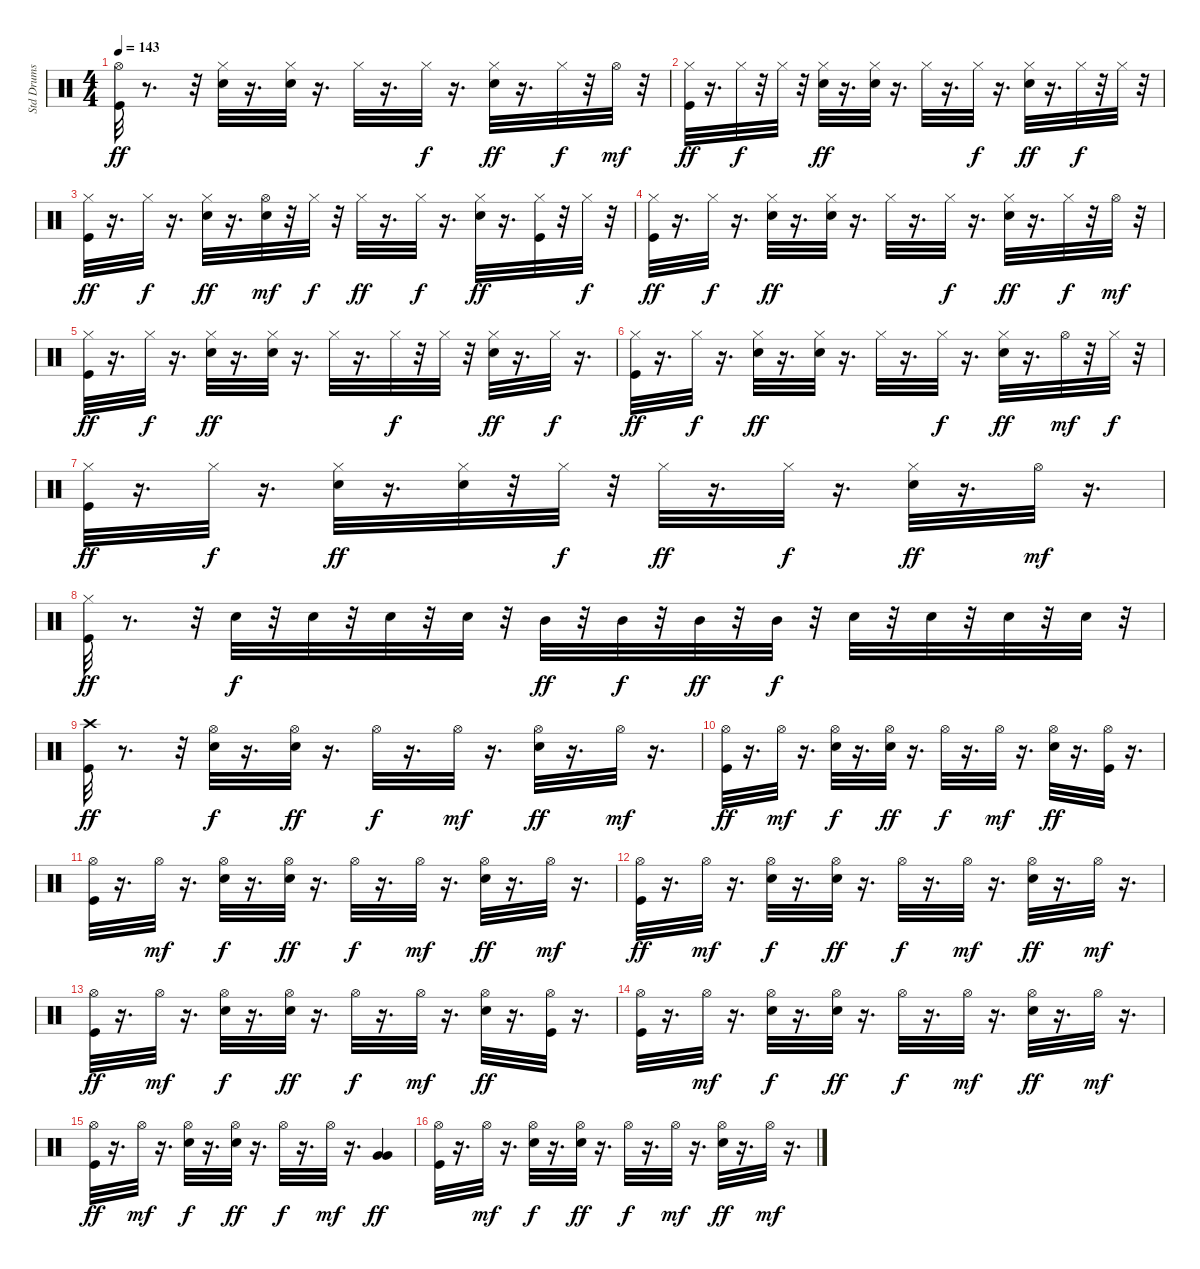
\track ("Std Drums" "Std Drums") {instrument percussion}
\staff {score}
\articulation defaults
\ts (4 4)
\tempo 143
\clef neutral
\ks c
("Hi-Hat (open)" "Kick (hit)").32{dy ff} r.8{d} r.32 ("Hi-Hat (closed)" "Snare (hit) 2").32 r.16{d} ("Hi-Hat (closed)" "Snare (hit) 2").32 r.16{d} "Hi-Hat (closed)".32 r.16{d} "Hi-Hat (closed)".32{dy f} r.16{d} ("Hi-Hat (closed)" "Snare (hit) 2").32{dy ff} r.16{d} "Hi-Hat (closed)".32{dy f} r.32 "Hi-Hat (open)".32{dy mf} r.32 |
("Hi-Hat (closed)" "Kick (hit)").32{dy ff} r.16{d} "Hi-Hat (closed)".32{dy f} r.32 "Hi-Hat (closed)".32 r.32 ("Hi-Hat (closed)" "Snare (hit) 2").32{dy ff} r.16{d} ("Hi-Hat (closed)" "Snare (hit) 2").32 r.16{d} "Hi-Hat (closed)".32 r.16{d} "Hi-Hat (closed)".32{dy f} r.16{d} ("Hi-Hat (closed)" "Snare (hit) 2").32{dy ff} r.16{d} "Hi-Hat (closed)".32{dy f} r.32 "Hi-Hat (closed)".32 r.32 |
("Hi-Hat (closed)" "Kick (hit)").32{dy ff} r.16{d} "Hi-Hat (closed)".32{dy f} r.16{d} ("Hi-Hat (closed)" "Snare (hit) 2").32{dy ff} r.16{d} ("Hi-Hat (open)" "Snare (hit) 2").32{dy mf} r.32 "Hi-Hat (closed)".32{dy f} r.32 "Hi-Hat (closed)".32{dy ff} r.16{d} "Hi-Hat (closed)".32{dy f} r.16{d} ("Hi-Hat (closed)" "Snare (hit) 2").32{dy ff} r.16{d} ("Hi-Hat (closed)" "Kick (hit)").32 r.32 "Hi-Hat (closed)".32{dy f} r.32 |
("Hi-Hat (closed)" "Kick (hit)").32{dy ff} r.16{d} "Hi-Hat (closed)".32{dy f} r.16{d} ("Hi-Hat (closed)" "Snare (hit) 2").32{dy ff} r.16{d} ("Hi-Hat (closed)" "Snare (hit) 2").32 r.16{d} "Hi-Hat (closed)".32 r.16{d} "Hi-Hat (closed)".32{dy f} r.16{d} ("Hi-Hat (closed)" "Snare (hit) 2").32{dy ff} r.16{d} "Hi-Hat (closed)".32{dy f} r.32 "Hi-Hat (open)".32{dy mf} r.32 |
("Hi-Hat (closed)" "Kick (hit)").32{dy ff} r.16{d} "Hi-Hat (closed)".32{dy f} r.16{d} ("Hi-Hat (closed)" "Snare (hit) 2").32{dy ff} r.16{d} ("Hi-Hat (closed)" "Snare (hit) 2").32 r.16{d} "Hi-Hat (closed)".32 r.16{d} "Hi-Hat (closed)".32{dy f} r.32 "Hi-Hat (closed)".32 r.32 ("Hi-Hat (closed)" "Snare (hit) 2").32{dy ff} r.16{d} "Hi-Hat (closed)".32{dy f} r.16{d} |
("Hi-Hat (closed)" "Kick (hit)").32{dy ff} r.16{d} "Hi-Hat (closed)".32{dy f} r.16{d} ("Hi-Hat (closed)" "Snare (hit) 2").32{dy ff} r.16{d} ("Hi-Hat (closed)" "Snare (hit) 2").32 r.16{d} "Hi-Hat (closed)".32 r.16{d} "Hi-Hat (closed)".32{dy f} r.16{d} ("Hi-Hat (closed)" "Snare (hit) 2").32{dy ff} r.16{d} "Hi-Hat (open)".32{dy mf} r.32 "Hi-Hat (closed)".32{dy f} r.32 |
("Hi-Hat (closed)" "Kick (hit)").32{dy ff} r.16{d} "Hi-Hat (closed)".32{dy f} r.16{d} ("Hi-Hat (closed)" "Snare (hit) 2").32{dy ff} r.16{d} ("Hi-Hat (closed)" "Snare (hit) 2").32 r.32 "Hi-Hat (closed)".32{dy f} r.32 "Hi-Hat (closed)".32{dy ff} r.16{d} "Hi-Hat (closed)".32{dy f} r.16{d} ("Hi-Hat (closed)" "Snare (hit) 2").32{dy ff} r.16{d} "Hi-Hat (open)".32{dy mf} r.16{d} |
("Hi-Hat (closed)" "Kick (hit)").32{dy ff} r.8{d} r.32 "Snare (hit) 2".32{dy f} r.32 "Snare (hit) 2".32 r.32 "Snare (hit) 2".32 r.32 "Snare (hit) 2".32 r.32 "Mid Tom (hit)".32{dy ff} r.32 "Mid Tom (hit)".32{dy f} r.32 "Mid Tom (hit)".32{dy ff} r.32 "Mid Tom (hit)".32{dy f} r.32 "Snare (hit) 2".32 r.32 "Snare (hit) 2".32 r.32 "Snare (hit) 2".32 r.32 "Snare (hit) 2".32 r.32 |
("Kick (hit)" "Crash high (hit)").32{dy ff} r.8{d} r.32 ("Hi-Hat (open)" "Snare (hit) 2").32{dy f} r.16{d} ("Hi-Hat (open)" "Snare (hit) 2").32{dy ff} r.16{d} "Hi-Hat (open)".32{dy f} r.16{d} "Hi-Hat (open)".32{dy mf} r.16{d} ("Hi-Hat (open)" "Snare (hit) 2").32{dy ff} r.16{d} "Hi-Hat (open)".32{dy mf} r.16{d} |
("Hi-Hat (open)" "Kick (hit)").32{dy ff} r.16{d} "Hi-Hat (open)".32{dy mf} r.16{d} ("Hi-Hat (open)" "Snare (hit) 2").32{dy f} r.16{d} ("Hi-Hat (open)" "Snare (hit) 2").32{dy ff} r.16{d} "Hi-Hat (open)".32{dy f} r.16{d} "Hi-Hat (open)".32{dy mf} r.16{d} ("Hi-Hat (open)" "Snare (hit) 2").32{dy ff} r.16{d} ("Hi-Hat (open)" "Kick (hit)").32 r.16{d} |
("Hi-Hat (open)" "Kick (hit)").32 r.16{d} "Hi-Hat (open)".32{dy mf} r.16{d} ("Hi-Hat (open)" "Snare (hit) 2").32{dy f} r.16{d} ("Hi-Hat (open)" "Snare (hit) 2").32{dy ff} r.16{d} "Hi-Hat (open)".32{dy f} r.16{d} "Hi-Hat (open)".32{dy mf} r.16{d} ("Hi-Hat (open)" "Snare (hit) 2").32{dy ff} r.16{d} "Hi-Hat (open)".32{dy mf} r.16{d} |
("Hi-Hat (open)" "Kick (hit)").32{dy ff} r.16{d} "Hi-Hat (open)".32{dy mf} r.16{d} ("Hi-Hat (open)" "Snare (hit) 2").32{dy f} r.16{d} ("Hi-Hat (open)" "Snare (hit) 2").32{dy ff} r.16{d} "Hi-Hat (open)".32{dy f} r.16{d} "Hi-Hat (open)".32{dy mf} r.16{d} ("Hi-Hat (open)" "Snare (hit) 2").32{dy ff} r.16{d} "Hi-Hat (open)".32{dy mf} r.16{d} |
("Hi-Hat (open)" "Kick (hit)").32{dy ff} r.16{d} "Hi-Hat (open)".32{dy mf} r.16{d} ("Hi-Hat (open)" "Snare (hit) 2").32{dy f} r.16{d} ("Hi-Hat (open)" "Snare (hit) 2").32{dy ff} r.16{d} "Hi-Hat (open)".32{dy f} r.16{d} "Hi-Hat (open)".32{dy mf} r.16{d} ("Hi-Hat (open)" "Snare (hit) 2").32{dy ff} r.16{d} ("Hi-Hat (open)" "Kick (hit)").32 r.16{d} |
("Hi-Hat (open)" "Kick (hit)").32 r.16{d} "Hi-Hat (open)".32{dy mf} r.16{d} ("Hi-Hat (open)" "Snare (hit) 2").32{dy f} r.16{d} ("Hi-Hat (open)" "Snare (hit) 2").32{dy ff} r.16{d} "Hi-Hat (open)".32{dy f} r.16{d} "Hi-Hat (open)".32{dy mf} r.16{d} ("Hi-Hat (open)" "Snare (hit) 2").32{dy ff} r.16{d} "Hi-Hat (open)".32{dy mf} r.16{d} |
("Hi-Hat (open)" "Kick (hit)").32{dy ff} r.16{d} "Hi-Hat (open)".32{dy mf} r.16{d} ("Hi-Hat (open)" "Snare (hit) 2").32{dy f} r.16{d} ("Hi-Hat (open)" "Snare (hit) 2").32{dy ff} r.16{d} "Hi-Hat (open)".32{dy f} r.16{d} "Hi-Hat (open)".32{dy mf} r.16{d} ("Very Low Tom (hit)" "Very Low Tom (hit)").4{dy ff} |
("Hi-Hat (open)" "Kick (hit)").32 r.16{d} "Hi-Hat (open)".32{dy mf} r.16{d} ("Hi-Hat (open)" "Snare (hit) 2").32{dy f} r.16{d} ("Hi-Hat (open)" "Snare (hit) 2").32{dy ff} r.16{d} "Hi-Hat (open)".32{dy f} r.16{d} "Hi-Hat (open)".32{dy mf} r.16{d} ("Hi-Hat (open)" "Snare (hit) 2").32{dy ff} r.16{d} "Hi-Hat (open)".32{dy mf} r.16{d}
